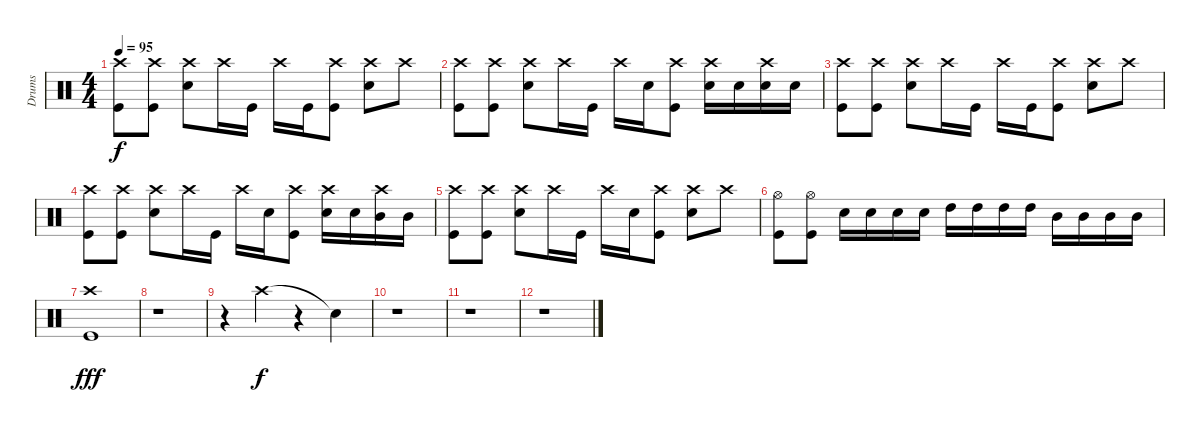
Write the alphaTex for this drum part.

\track ("Drums" "Drums") {instrument percussion}
\staff {score}
\articulation defaults
\ts (4 4)
\tempo 95
\clef neutral
\ks c
("Crash high (hit)" "Kick (hit)").8{dy f} ("Crash high (hit)" "Kick (hit)").8 ("Crash high (hit)" "Electric Snare (hit)").8 "Crash high (hit)".16 "Kick (hit)".16 "Crash high (hit)".16 "Kick (hit)".16 ("Crash high (hit)" "Kick (hit)").8 ("Crash high (hit)" "Electric Snare (hit)").8 "Crash high (hit)".8 |
("Crash high (hit)" "Kick (hit)").8 ("Crash high (hit)" "Kick (hit)").8 ("Crash high (hit)" "Electric Snare (hit)").8 "Crash high (hit)".16 "Kick (hit)".16 "Crash high (hit)".16 "Electric Snare (hit)".16 ("Crash high (hit)" "Kick (hit)").8 ("Crash high (hit)" "Electric Snare (hit)").16 "Electric Snare (hit)".16 ("Crash high (hit)" "Electric Snare (hit)").16 "Electric Snare (hit)".16 |
("Crash high (hit)" "Kick (hit)").8 ("Crash high (hit)" "Kick (hit)").8 ("Crash high (hit)" "Electric Snare (hit)").8 "Crash high (hit)".16 "Kick (hit)".16 "Crash high (hit)".16 "Kick (hit)".16 ("Crash high (hit)" "Kick (hit)").8 ("Crash high (hit)" "Electric Snare (hit)").8 "Crash high (hit)".8 |
("Crash high (hit)" "Kick (hit)").8 ("Crash high (hit)" "Kick (hit)").8 ("Crash high (hit)" "Electric Snare (hit)").8 "Crash high (hit)".16 "Kick (hit)".16 "Crash high (hit)".16 "Electric Snare (hit)".16 ("Crash high (hit)" "Kick (hit)").8 ("Crash high (hit)" "Electric Snare (hit)").16 "Electric Snare (hit)".16 ("Crash high (hit)" "Mid Tom (hit)").16 "Mid Tom (hit)".16 |
("Crash high (hit)" "Kick (hit)").8 ("Crash high (hit)" "Kick (hit)").8 ("Crash high (hit)" "Electric Snare (hit)").8 "Crash high (hit)".16 "Kick (hit)".16 "Crash high (hit)".16 "Electric Snare (hit)".16 ("Crash high (hit)" "Kick (hit)").8 ("Crash high (hit)" "Electric Snare (hit)").8 "Crash high (hit)".8 |
("Hi-Hat (open)" "Kick (hit)").8 ("Hi-Hat (open)" "Kick (hit)").8 "Electric Snare (hit)".16 "Electric Snare (hit)".16 "Electric Snare (hit)".16 "Electric Snare (hit)".16 "High Tom (hit)".16 "High Tom (hit)".16 "High Tom (hit)".16 "High Tom (hit)".16 "Mid Tom (hit)".16 "Mid Tom (hit)".16 "Mid Tom (hit)".16 "Mid Tom (hit)".16 |
("Crash high (hit)" "Kick (hit)").1{dy fff} |
r.1 |
r.4 "Crash high (hit)".4{dy f} r.4 "Snare (hit)"{t}.4 |
r.1 |
r.1 |
r.1
